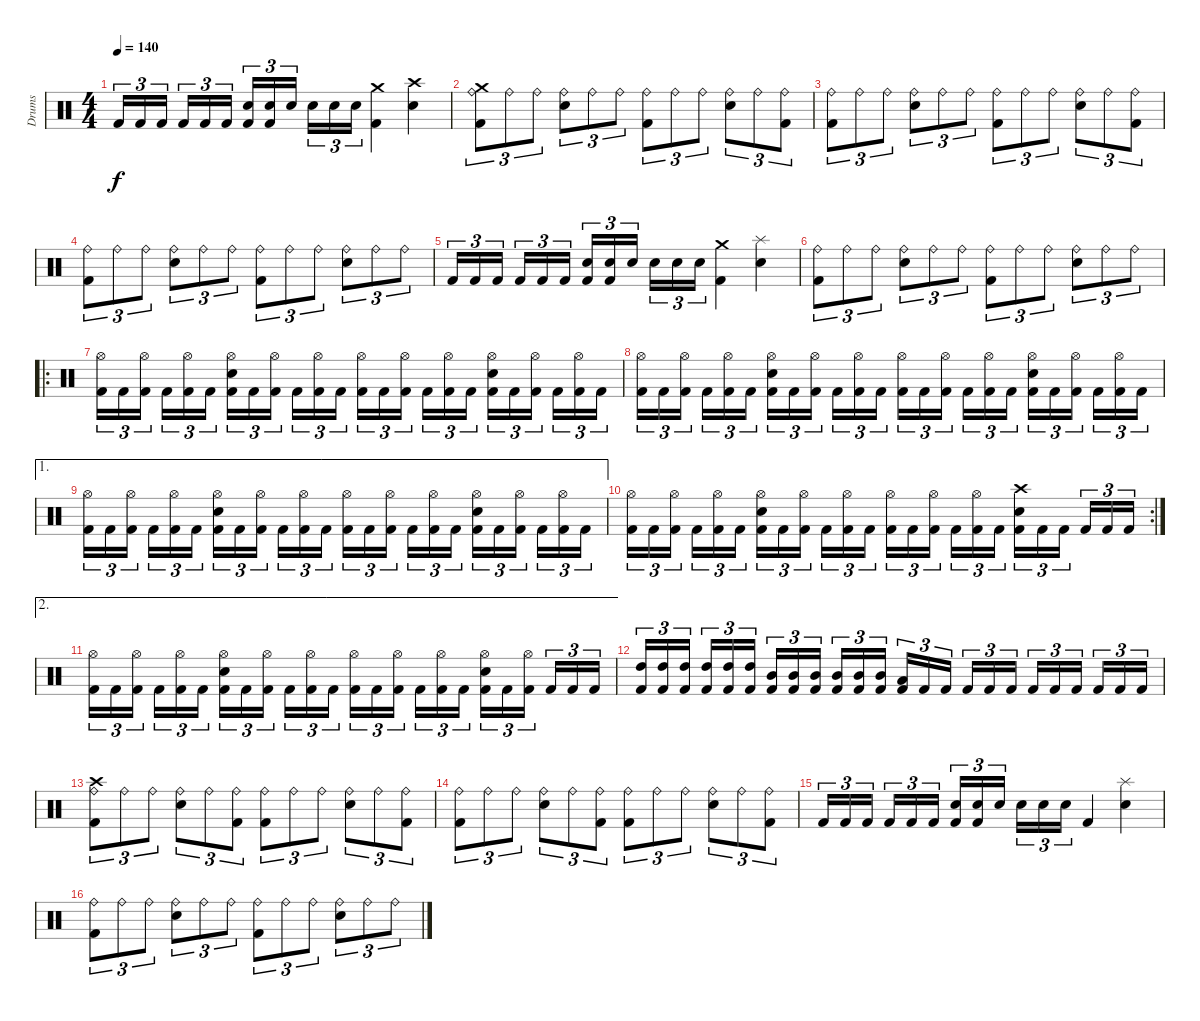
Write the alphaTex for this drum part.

\track ("Drums" "Drums") {instrument percussion}
\staff {score}
\articulation defaults
\ts (4 4)
\tempo 140
\clef neutral
\ks c "Kick (hit) 2".16{tu (3 2) dy f} "Kick (hit) 2".16{tu (3 2)} "Kick (hit) 2".16{tu (3 2)} "Kick (hit) 2".16{tu (3 2)} "Kick (hit) 2".16{tu (3 2)} "Kick (hit) 2".16{tu (3 2)}
("Electric Snare (hit)" "Kick (hit) 2").16{tu (3 2)} ("Electric Snare (hit)" "Kick (hit) 2").16{tu (3 2)} "Electric Snare (hit)".16{tu (3 2)} "Electric Snare (hit)".16{tu (3 2)} "Electric Snare (hit)".16{tu (3 2)} "Electric Snare (hit)".16{tu (3 2)} ("Crash medium (hit)" "Kick (hit) 2").4 ("Crash high (hit)" "Electric Snare (hit)").4 |
("Crash medium (hit)" "Ride (bell)" "Kick (hit) 2").8{tu (3 2)} "Ride (bell)".8{tu (3 2)} "Ride (bell)".8{tu (3 2)} ("Ride (bell)" "Electric Snare (hit)").8{tu (3 2)} "Ride (bell)".8{tu (3 2)} "Ride (bell)".8{tu (3 2)} ("Ride (bell)" "Kick (hit) 2").8{tu (3 2)} "Ride (bell)".8{tu (3 2)} "Ride (bell)".8{tu (3 2)} ("Ride (bell)" "Electric Snare (hit)").8{tu (3 2)} "Ride (bell)".8{tu (3 2)} ("Ride (bell)" "Kick (hit) 2").8{tu (3 2)} |
("Ride (bell)" "Kick (hit) 2").8{tu (3 2)} "Ride (bell)".8{tu (3 2)} "Ride (bell)".8{tu (3 2)} ("Ride (bell)" "Electric Snare (hit)").8{tu (3 2)} "Ride (bell)".8{tu (3 2)} "Ride (bell)".8{tu (3 2)} ("Ride (bell)" "Kick (hit) 2").8{tu (3 2)} "Ride (bell)".8{tu (3 2)} "Ride (bell)".8{tu (3 2)} ("Ride (bell)" "Electric Snare (hit)").8{tu (3 2)} "Ride (bell)".8{tu (3 2)} ("Ride (bell)" "Kick (hit) 2").8{tu (3 2)} |
("Ride (bell)" "Kick (hit) 2").8{tu (3 2)} "Ride (bell)".8{tu (3 2)} "Ride (bell)".8{tu (3 2)} ("Ride (bell)" "Electric Snare (hit)").8{tu (3 2)} "Ride (bell)".8{tu (3 2)} "Ride (bell)".8{tu (3 2)} ("Ride (bell)" "Kick (hit) 2").8{tu (3 2)} "Ride (bell)".8{tu (3 2)} "Ride (bell)".8{tu (3 2)} ("Ride (bell)" "Electric Snare (hit)").8{tu (3 2)} "Ride (bell)".8{tu (3 2)} "Ride (bell)".8{tu (3 2)} |
"Kick (hit) 2".16{tu (3 2)} "Kick (hit) 2".16{tu (3 2)} "Kick (hit) 2".16{tu (3 2)} "Kick (hit) 2".16{tu (3 2)} "Kick (hit) 2".16{tu (3 2)} "Kick (hit) 2".16{tu (3 2)} ("Electric Snare (hit)" "Kick (hit) 2").16{tu (3 2)} ("Electric Snare (hit)" "Kick (hit) 2").16{tu (3 2)} "Electric Snare (hit)".16{tu (3 2)} "Electric Snare (hit)".16{tu (3 2)} "Electric Snare (hit)".16{tu (3 2)} "Electric Snare (hit)".16{tu (3 2)} ("Crash medium (hit)" "Kick (hit) 2").4 ("Splash (hit)" "Electric Snare (hit)").4 |
("Ride (bell)" "Kick (hit) 2").8{tu (3 2)} "Ride (bell)".8{tu (3 2)} "Ride (bell)".8{tu (3 2)} ("Ride (bell)" "Electric Snare (hit)").8{tu (3 2)} "Ride (bell)".8{tu (3 2)} "Ride (bell)".8{tu (3 2)} ("Ride (bell)" "Kick (hit) 2").8{tu (3 2)} "Ride (bell)".8{tu (3 2)} "Ride (bell)".8{tu (3 2)} ("Ride (bell)" "Electric Snare (hit)").8{tu (3 2)} "Ride (bell)".8{tu (3 2)} "Ride (bell)".8{tu (3 2)} |
\ro
("Hi-Hat (open)" "Kick (hit) 2").16{tu (3 2)} "Kick (hit) 2".16{tu (3 2)} ("Hi-Hat (open)" "Kick (hit) 2").16{tu (3 2)} "Kick (hit) 2".16{tu (3 2)} ("Hi-Hat (open)" "Kick (hit) 2").16{tu (3 2)} "Kick (hit) 2".16{tu (3 2)} ("Hi-Hat (open)" "Electric Snare (hit)" "Kick (hit) 2").16{tu (3 2)} "Kick (hit) 2".16{tu (3 2)} ("Hi-Hat (open)" "Kick (hit) 2").16{tu (3 2)} "Kick (hit) 2".16{tu (3 2)} ("Hi-Hat (open)" "Kick (hit) 2").16{tu (3 2)} "Kick (hit) 2".16{tu (3 2)} ("Hi-Hat (open)" "Kick (hit) 2").16{tu (3 2)} "Kick (hit) 2".16{tu (3 2)} ("Hi-Hat (open)" "Kick (hit) 2").16{tu (3 2)} "Kick (hit) 2".16{tu (3 2)} ("Hi-Hat (open)" "Kick (hit) 2").16{tu (3 2)} "Kick (hit) 2".16{tu (3 2)} ("Hi-Hat (open)" "Electric Snare (hit)" "Kick (hit) 2").16{tu (3 2)} "Kick (hit) 2".16{tu (3 2)} ("Hi-Hat (open)" "Kick (hit) 2").16{tu (3 2)} "Kick (hit) 2".16{tu (3 2)} ("Hi-Hat (open)" "Kick (hit) 2").16{tu (3 2)} "Kick (hit) 2".16{tu (3 2)} |
("Hi-Hat (open)" "Kick (hit) 2").16{tu (3 2)} "Kick (hit) 2".16{tu (3 2)} ("Hi-Hat (open)" "Kick (hit) 2").16{tu (3 2)} "Kick (hit) 2".16{tu (3 2)} ("Hi-Hat (open)" "Kick (hit) 2").16{tu (3 2)} "Kick (hit) 2".16{tu (3 2)} ("Hi-Hat (open)" "Electric Snare (hit)" "Kick (hit) 2").16{tu (3 2)} "Kick (hit) 2".16{tu (3 2)} ("Hi-Hat (open)" "Kick (hit) 2").16{tu (3 2)} "Kick (hit) 2".16{tu (3 2)} ("Hi-Hat (open)" "Kick (hit) 2").16{tu (3 2)} "Kick (hit) 2".16{tu (3 2)} ("Hi-Hat (open)" "Kick (hit) 2").16{tu (3 2)} "Kick (hit) 2".16{tu (3 2)} ("Hi-Hat (open)" "Kick (hit) 2").16{tu (3 2)} "Kick (hit) 2".16{tu (3 2)} ("Hi-Hat (open)" "Kick (hit) 2").16{tu (3 2)} "Kick (hit) 2".16{tu (3 2)} ("Hi-Hat (open)" "Electric Snare (hit)" "Kick (hit) 2").16{tu (3 2)} "Kick (hit) 2".16{tu (3 2)} ("Hi-Hat (open)" "Kick (hit) 2").16{tu (3 2)} "Kick (hit) 2".16{tu (3 2)} ("Hi-Hat (open)" "Kick (hit) 2").16{tu (3 2)} "Kick (hit) 2".16{tu (3 2)} |
\ae 1
("Hi-Hat (open)" "Kick (hit) 2").16{tu (3 2)} "Kick (hit) 2".16{tu (3 2)} ("Hi-Hat (open)" "Kick (hit) 2").16{tu (3 2)} "Kick (hit) 2".16{tu (3 2)} ("Hi-Hat (open)" "Kick (hit) 2").16{tu (3 2)} "Kick (hit) 2".16{tu (3 2)} ("Hi-Hat (open)" "Electric Snare (hit)" "Kick (hit) 2").16{tu (3 2)} "Kick (hit) 2".16{tu (3 2)} ("Hi-Hat (open)" "Kick (hit) 2").16{tu (3 2)} "Kick (hit) 2".16{tu (3 2)} ("Hi-Hat (open)" "Kick (hit) 2").16{tu (3 2)} "Kick (hit) 2".16{tu (3 2)} ("Hi-Hat (open)" "Kick (hit) 2").16{tu (3 2)} "Kick (hit) 2".16{tu (3 2)} ("Hi-Hat (open)" "Kick (hit) 2").16{tu (3 2)} "Kick (hit) 2".16{tu (3 2)} ("Hi-Hat (open)" "Kick (hit) 2").16{tu (3 2)} "Kick (hit) 2".16{tu (3 2)} ("Hi-Hat (open)" "Electric Snare (hit)" "Kick (hit) 2").16{tu (3 2)} "Kick (hit) 2".16{tu (3 2)} ("Hi-Hat (open)" "Kick (hit) 2").16{tu (3 2)} "Kick (hit) 2".16{tu (3 2)} ("Hi-Hat (open)" "Kick (hit) 2").16{tu (3 2)} "Kick (hit) 2".16{tu (3 2)} |
\rc 2
("Hi-Hat (open)" "Kick (hit) 2").16{tu (3 2)} "Kick (hit) 2".16{tu (3 2)} ("Hi-Hat (open)" "Kick (hit) 2").16{tu (3 2)} "Kick (hit) 2".16{tu (3 2)} ("Hi-Hat (open)" "Kick (hit) 2").16{tu (3 2)} "Kick (hit) 2".16{tu (3 2)} ("Hi-Hat (open)" "Electric Snare (hit)" "Kick (hit) 2").16{tu (3 2)} "Kick (hit) 2".16{tu (3 2)} ("Hi-Hat (open)" "Kick (hit) 2").16{tu (3 2)} "Kick (hit) 2".16{tu (3 2)} ("Hi-Hat (open)" "Kick (hit) 2").16{tu (3 2)} "Kick (hit) 2".16{tu (3 2)} ("Hi-Hat (open)" "Kick (hit) 2").16{tu (3 2)} "Kick (hit) 2".16{tu (3 2)} ("Hi-Hat (open)" "Kick (hit) 2").16{tu (3 2)} "Kick (hit) 2".16{tu (3 2)} ("Hi-Hat (open)" "Kick (hit) 2").16{tu (3 2)} "Kick (hit) 2".16{tu (3 2)} ("Crash high (hit)" "Electric Snare (hit)" "Kick (hit) 2").16{tu (3 2)} "Kick (hit) 2".16{tu (3 2)} "Kick (hit) 2".16{tu (3 2)} "Kick (hit) 2".16{tu (3 2)} "Kick (hit) 2".16{tu (3 2)} "Kick (hit) 2".16{tu (3 2)} |
\ae 2
("Hi-Hat (open)" "Kick (hit) 2").16{tu (3 2)} "Kick (hit) 2".16{tu (3 2)} ("Hi-Hat (open)" "Kick (hit) 2").16{tu (3 2)} "Kick (hit) 2".16{tu (3 2)} ("Hi-Hat (open)" "Kick (hit) 2").16{tu (3 2)} "Kick (hit) 2".16{tu (3 2)} ("Hi-Hat (open)" "Electric Snare (hit)" "Kick (hit) 2").16{tu (3 2)} "Kick (hit) 2".16{tu (3 2)} ("Hi-Hat (open)" "Kick (hit) 2").16{tu (3 2)} "Kick (hit) 2".16{tu (3 2)} ("Hi-Hat (open)" "Kick (hit) 2").16{tu (3 2)} "Kick (hit) 2".16{tu (3 2)} ("Hi-Hat (open)" "Kick (hit) 2").16{tu (3 2)} "Kick (hit) 2".16{tu (3 2)} ("Hi-Hat (open)" "Kick (hit) 2").16{tu (3 2)} "Kick (hit) 2".16{tu (3 2)} ("Hi-Hat (open)" "Kick (hit) 2").16{tu (3 2)} "Kick (hit) 2".16{tu (3 2)} ("Hi-Hat (open)" "Electric Snare (hit)" "Kick (hit) 2").16{tu (3 2)} "Kick (hit) 2".16{tu (3 2)} ("Hi-Hat (open)" "Kick (hit) 2").16{tu (3 2)} "Kick (hit) 2".16{tu (3 2)} "Kick (hit) 2".16{tu (3 2)} "Kick (hit) 2".16{tu (3 2)} |
("High Tom (hit)" "Kick (hit) 2").16{tu (3 2)} ("High Tom (hit)" "Kick (hit) 2").16{tu (3 2)} ("High Tom (hit)" "Kick (hit) 2").16{tu (3 2)} ("High Tom (hit)" "Kick (hit) 2").16{tu (3 2)} ("High Tom (hit)" "Kick (hit) 2").16{tu (3 2)} ("High Tom (hit)" "Kick (hit) 2").16{tu (3 2)} ("Mid Tom (hit)" "Kick (hit) 2").16{tu (3 2)} ("Mid Tom (hit)" "Kick (hit) 2").16{tu (3 2)} ("Mid Tom (hit)" "Kick (hit) 2").16{tu (3 2)} ("Mid Tom (hit)" "Kick (hit) 2").16{tu (3 2)} ("Mid Tom (hit)" "Kick (hit) 2").16{tu (3 2)} ("Mid Tom (hit)" "Kick (hit) 2").16{tu (3 2)} ("Low Tom (hit)" "Kick (hit) 2").16{tu (3 2)} "Kick (hit) 2".16{tu (3 2)} "Kick (hit) 2".16{tu (3 2)} "Kick (hit) 2".16{tu (3 2)} "Kick (hit) 2".16{tu (3 2)} "Kick (hit) 2".16{tu (3 2)} "Kick (hit) 2".16{tu (3 2)} "Kick (hit) 2".16{tu (3 2)} "Kick (hit) 2".16{tu (3 2)} "Kick (hit) 2".16{tu (3 2)} "Kick (hit) 2".16{tu (3 2)} "Kick (hit) 2".16{tu (3 2)} |
("Crash high (hit)" "Ride (bell)" "Kick (hit) 2").8{tu (3 2)} "Ride (bell)".8{tu (3 2)} "Ride (bell)".8{tu (3 2)} ("Ride (bell)" "Electric Snare (hit)").8{tu (3 2)} "Ride (bell)".8{tu (3 2)} ("Ride (bell)" "Kick (hit) 2").8{tu (3 2)} ("Ride (bell)" "Kick (hit) 2").8{tu (3 2)} "Ride (bell)".8{tu (3 2)} "Ride (bell)".8{tu (3 2)} ("Ride (bell)" "Electric Snare (hit)").8{tu (3 2)} "Ride (bell)".8{tu (3 2)} ("Ride (bell)" "Kick (hit) 2").8{tu (3 2)} |
("Ride (bell)" "Kick (hit) 2").8{tu (3 2)} "Ride (bell)".8{tu (3 2)} "Ride (bell)".8{tu (3 2)} ("Ride (bell)" "Electric Snare (hit)").8{tu (3 2)} "Ride (bell)".8{tu (3 2)} ("Ride (bell)" "Kick (hit) 2").8{tu (3 2)} ("Ride (bell)" "Kick (hit) 2").8{tu (3 2)} "Ride (bell)".8{tu (3 2)} "Ride (bell)".8{tu (3 2)} ("Ride (bell)" "Electric Snare (hit)").8{tu (3 2)} "Ride (bell)".8{tu (3 2)} ("Ride (bell)" "Kick (hit) 2").8{tu (3 2)} |
"Kick (hit) 2".16{tu (3 2)} "Kick (hit) 2".16{tu (3 2)} "Kick (hit) 2".16{tu (3 2)} "Kick (hit) 2".16{tu (3 2)} "Kick (hit) 2".16{tu (3 2)} "Kick (hit) 2".16{tu (3 2)} ("Electric Snare (hit)" "Kick (hit) 2").16{tu (3 2)} ("Electric Snare (hit)" "Kick (hit) 2").16{tu (3 2)} "Electric Snare (hit)".16{tu (3 2)} "Electric Snare (hit)".16{tu (3 2)} "Electric Snare (hit)".16{tu (3 2)} "Electric Snare (hit)".16{tu (3 2)} "Kick (hit) 2".4 ("Splash (hit)" "Electric Snare (hit)").4 |
("Ride (bell)" "Kick (hit) 2").8{tu (3 2)} "Ride (bell)".8{tu (3 2)} "Ride (bell)".8{tu (3 2)} ("Ride (bell)" "Electric Snare (hit)").8{tu (3 2)} "Ride (bell)".8{tu (3 2)} "Ride (bell)".8{tu (3 2)} ("Ride (bell)" "Kick (hit) 2").8{tu (3 2)} "Ride (bell)".8{tu (3 2)} "Ride (bell)".8{tu (3 2)} ("Ride (bell)" "Electric Snare (hit)").8{tu (3 2)} "Ride (bell)".8{tu (3 2)} "Ride (bell)".8{tu (3 2)}
